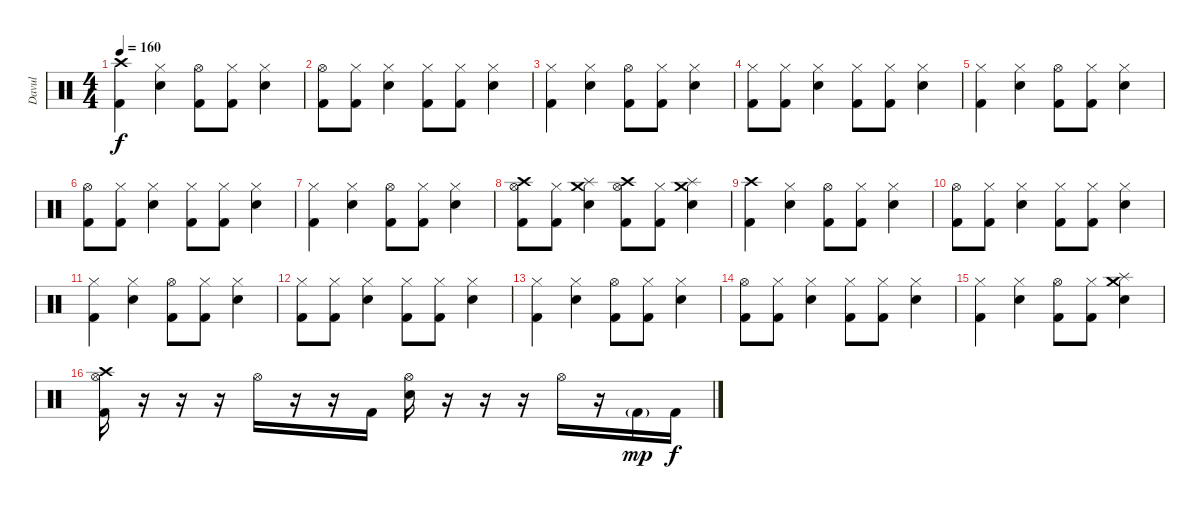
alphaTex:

\track ("Davul" "Davul") {instrument percussion}
\staff {score}
\articulation defaults
\ts (4 4)
\tempo 160
\clef neutral
\ks c
("Crash high (hit)" "Kick (hit) 2").4{dy f} ("Hi-Hat (closed)" "Electric Snare (hit)").4 ("Hi-Hat (open)" "Kick (hit) 2").8 ("Hi-Hat (closed)" "Kick (hit) 2").8 ("Hi-Hat (closed)" "Electric Snare (hit)").4 |
("Hi-Hat (open)" "Kick (hit) 2").8 ("Hi-Hat (closed)" "Kick (hit) 2").8 ("Hi-Hat (closed)" "Electric Snare (hit)").4 ("Hi-Hat (closed)" "Kick (hit) 2").8 ("Hi-Hat (closed)" "Kick (hit) 2").8 ("Hi-Hat (closed)" "Electric Snare (hit)").4 |
("Hi-Hat (closed)" "Kick (hit) 2").4 ("Hi-Hat (closed)" "Electric Snare (hit)").4 ("Hi-Hat (open)" "Kick (hit) 2").8 ("Hi-Hat (closed)" "Kick (hit) 2").8 ("Hi-Hat (closed)" "Electric Snare (hit)").4 |
("Hi-Hat (closed)" "Kick (hit) 2").8 ("Hi-Hat (closed)" "Kick (hit) 2").8 ("Hi-Hat (closed)" "Electric Snare (hit)").4 ("Hi-Hat (closed)" "Kick (hit) 2").8 ("Hi-Hat (closed)" "Kick (hit) 2").8 ("Hi-Hat (closed)" "Electric Snare (hit)").4 |
("Hi-Hat (closed)" "Kick (hit) 2").4 ("Hi-Hat (closed)" "Electric Snare (hit)").4 ("Hi-Hat (open)" "Kick (hit) 2").8 ("Hi-Hat (closed)" "Kick (hit) 2").8 ("Hi-Hat (closed)" "Electric Snare (hit)").4 |
("Hi-Hat (open)" "Kick (hit) 2").8 ("Hi-Hat (closed)" "Kick (hit) 2").8 ("Hi-Hat (closed)" "Electric Snare (hit)").4 ("Hi-Hat (closed)" "Kick (hit) 2").8 ("Hi-Hat (closed)" "Kick (hit) 2").8 ("Hi-Hat (closed)" "Electric Snare (hit)").4 |
("Hi-Hat (closed)" "Kick (hit) 2").4 ("Hi-Hat (closed)" "Electric Snare (hit)").4 ("Hi-Hat (open)" "Kick (hit) 2").8 ("Hi-Hat (closed)" "Kick (hit) 2").8 ("Hi-Hat (closed)" "Electric Snare (hit)").4 |
("Crash high (hit)" "Hi-Hat (open)" "Kick (hit) 2").8 ("Hi-Hat (closed)" "Kick (hit) 2").8 ("Splash (hit)" "Crash medium (hit)" "Electric Snare (hit)").4 ("Crash high (hit)" "Hi-Hat (open)" "Kick (hit) 2").8 ("Hi-Hat (closed)" "Kick (hit) 2").8 ("Crash medium (hit)" "Splash (hit)" "Electric Snare (hit)").4 |
("Crash high (hit)" "Kick (hit) 2").4 ("Hi-Hat (closed)" "Electric Snare (hit)").4 ("Hi-Hat (open)" "Kick (hit) 2").8 ("Hi-Hat (closed)" "Kick (hit) 2").8 ("Hi-Hat (closed)" "Electric Snare (hit)").4 |
("Hi-Hat (open)" "Kick (hit) 2").8 ("Hi-Hat (closed)" "Kick (hit) 2").8 ("Hi-Hat (closed)" "Electric Snare (hit)").4 ("Hi-Hat (closed)" "Kick (hit) 2").8 ("Hi-Hat (closed)" "Kick (hit) 2").8 ("Hi-Hat (closed)" "Electric Snare (hit)").4 |
("Hi-Hat (closed)" "Kick (hit) 2").4 ("Hi-Hat (closed)" "Electric Snare (hit)").4 ("Hi-Hat (open)" "Kick (hit) 2").8 ("Hi-Hat (closed)" "Kick (hit) 2").8 ("Hi-Hat (closed)" "Electric Snare (hit)").4 |
("Hi-Hat (closed)" "Kick (hit) 2").8 ("Hi-Hat (closed)" "Kick (hit) 2").8 ("Hi-Hat (closed)" "Electric Snare (hit)").4 ("Hi-Hat (closed)" "Kick (hit) 2").8 ("Hi-Hat (closed)" "Kick (hit) 2").8 ("Hi-Hat (closed)" "Electric Snare (hit)").4 |
("Hi-Hat (closed)" "Kick (hit) 2").4 ("Hi-Hat (closed)" "Electric Snare (hit)").4 ("Hi-Hat (open)" "Kick (hit) 2").8 ("Hi-Hat (closed)" "Kick (hit) 2").8 ("Hi-Hat (closed)" "Electric Snare (hit)").4 |
("Hi-Hat (open)" "Kick (hit) 2").8 ("Hi-Hat (closed)" "Kick (hit) 2").8 ("Hi-Hat (closed)" "Electric Snare (hit)").4 ("Hi-Hat (closed)" "Kick (hit) 2").8 ("Hi-Hat (closed)" "Kick (hit) 2").8 ("Hi-Hat (closed)" "Electric Snare (hit)").4 |
("Hi-Hat (closed)" "Kick (hit) 2").4 ("Hi-Hat (closed)" "Electric Snare (hit)").4 ("Hi-Hat (open)" "Kick (hit) 2").8 ("Hi-Hat (closed)" "Kick (hit) 2").8 ("Crash medium (hit)" "Splash (hit)" "Electric Snare (hit)").4 |
("Hi-Hat (open)" "Crash high (hit)" "Kick (hit) 2").16 r.16 r.16 r.16 "Hi-Hat (open)".16 r.16 r.16 "Kick (hit) 2".16 ("Hi-Hat (open)" "Electric Snare (hit)").16 r.16 r.16 r.16 "Hi-Hat (open)".16 r.16 "Kick (hit) 2"{g}.16{dy mp} "Kick (hit) 2".16{dy f}
